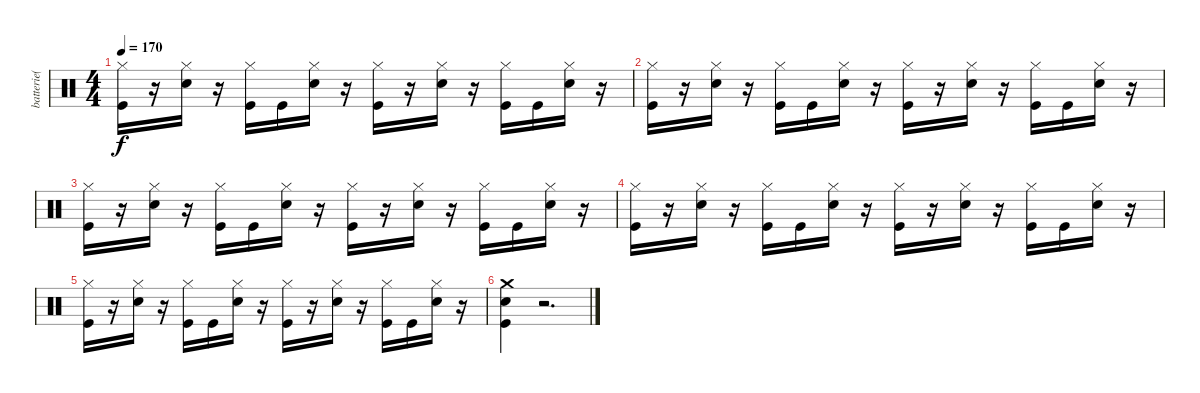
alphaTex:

\track ("batterie( Yureesh )" "batterie( ") {instrument percussion}
\staff {score}
\articulation defaults
\ts (4 4)
\tempo 170
\clef neutral
\ks c
("Hi-Hat (closed)" "Kick (hit)").16{dy f} r.16 ("Hi-Hat (closed)" "Snare (hit) 2").16 r.16 ("Hi-Hat (closed)" "Kick (hit)").16 "Kick (hit)".16 ("Hi-Hat (closed)" "Snare (hit) 2").16 r.16 ("Hi-Hat (closed)" "Kick (hit)").16 r.16 ("Hi-Hat (closed)" "Snare (hit) 2").16 r.16 ("Hi-Hat (closed)" "Kick (hit)").16 "Kick (hit)".16 ("Hi-Hat (closed)" "Snare (hit) 2").16 r.16 |
("Hi-Hat (closed)" "Kick (hit)").16 r.16 ("Hi-Hat (closed)" "Snare (hit) 2").16 r.16 ("Hi-Hat (closed)" "Kick (hit)").16 "Kick (hit)".16 ("Hi-Hat (closed)" "Snare (hit) 2").16 r.16 ("Hi-Hat (closed)" "Kick (hit)").16 r.16 ("Hi-Hat (closed)" "Snare (hit) 2").16 r.16 ("Hi-Hat (closed)" "Kick (hit)").16 "Kick (hit)".16 ("Hi-Hat (closed)" "Snare (hit) 2").16 r.16 |
("Hi-Hat (closed)" "Kick (hit)").16 r.16 ("Hi-Hat (closed)" "Snare (hit) 2").16 r.16 ("Hi-Hat (closed)" "Kick (hit)").16 "Kick (hit)".16 ("Hi-Hat (closed)" "Snare (hit) 2").16 r.16 ("Hi-Hat (closed)" "Kick (hit)").16 r.16 ("Hi-Hat (closed)" "Snare (hit) 2").16 r.16 ("Hi-Hat (closed)" "Kick (hit)").16 "Kick (hit)".16 ("Hi-Hat (closed)" "Snare (hit) 2").16 r.16 |
("Hi-Hat (closed)" "Kick (hit)").16 r.16 ("Hi-Hat (closed)" "Snare (hit) 2").16 r.16 ("Hi-Hat (closed)" "Kick (hit)").16 "Kick (hit)".16 ("Hi-Hat (closed)" "Snare (hit) 2").16 r.16 ("Hi-Hat (closed)" "Kick (hit)").16 r.16 ("Hi-Hat (closed)" "Snare (hit) 2").16 r.16 ("Hi-Hat (closed)" "Kick (hit)").16 "Kick (hit)".16 ("Hi-Hat (closed)" "Snare (hit) 2").16 r.16 |
("Hi-Hat (closed)" "Kick (hit)").16 r.16 ("Hi-Hat (closed)" "Snare (hit) 2").16 r.16 ("Hi-Hat (closed)" "Kick (hit)").16 "Kick (hit)".16 ("Hi-Hat (closed)" "Snare (hit) 2").16 r.16 ("Hi-Hat (closed)" "Kick (hit)").16 r.16 ("Hi-Hat (closed)" "Snare (hit) 2").16 r.16 ("Hi-Hat (closed)" "Kick (hit)").16 "Kick (hit)".16 ("Hi-Hat (closed)" "Snare (hit) 2").16 r.16 |
("Crash medium (hit)" "Snare (hit) 2" "Kick (hit)").4 r.2{d}
